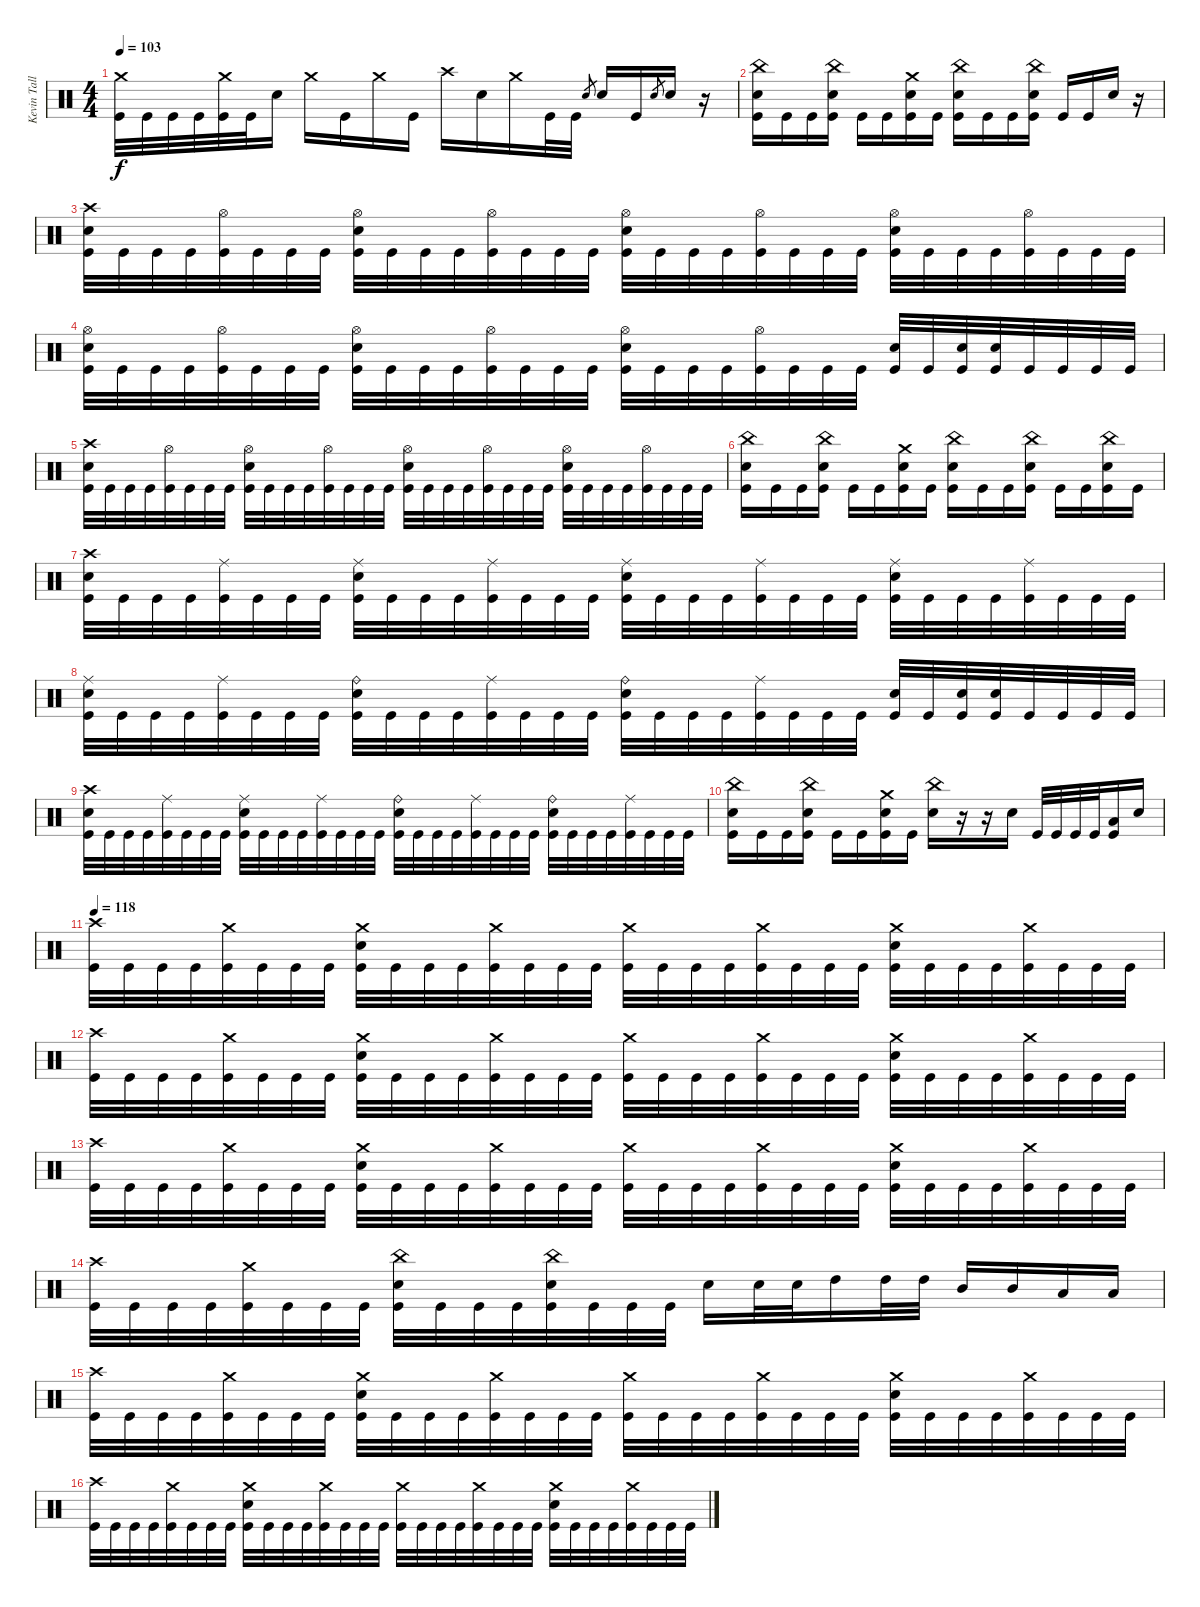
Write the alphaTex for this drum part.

\track ("Kevin Talley" "Kevin Tall") {instrument percussion}
\staff {score}
\articulation defaults
\ts (4 4)
\tempo 103
\clef neutral
\ks c
("Crash medium (hit)" "Kick (hit)").32{dy f} "Kick (hit)".32 "Kick (hit)".32 "Kick (hit)".32 ("Crash medium (hit)" "Kick (hit)").32 "Kick (hit)".32 "Electric Snare (hit)".16 "Crash medium (hit)".16 "Kick (hit)".16 "Crash medium (hit)".16 "Kick (hit)".16 "Crash high (hit)".16 "Electric Snare (hit)".16 "Crash medium (hit)".16 "Kick (hit)".32 "Kick (hit)".32 "Electric Snare (hit)".8{gr} "Electric Snare (hit)".16 "Kick (hit)".16 "Electric Snare (hit)".8{gr} "Electric Snare (hit)".16 r.16 |
("China (hit)" "Electric Snare (hit)" "Kick (hit)").16 "Kick (hit)".16 "Kick (hit)".16 ("China (hit)" "Electric Snare (hit)" "Kick (hit)").16 "Kick (hit)".16 "Kick (hit)".16 ("Crash medium (hit)" "Electric Snare (hit)" "Kick (hit)").16 "Kick (hit)".16 ("China (hit)" "Electric Snare (hit)" "Kick (hit)").16 "Kick (hit)".16 "Kick (hit)".16 ("China (hit)" "Electric Snare (hit)" "Kick (hit)").16 "Kick (hit)".16 "Kick (hit)".16 "Electric Snare (hit)".16 r.16 |
("Crash high (hit)" "Electric Snare (hit)" "Kick (hit)").32 "Kick (hit)".32 "Kick (hit)".32 "Kick (hit)".32 ("Hi-Hat (open)" "Kick (hit)").32 "Kick (hit)".32 "Kick (hit)".32 "Kick (hit)".32 ("Hi-Hat (open)" "Electric Snare (hit)" "Kick (hit)").32 "Kick (hit)".32 "Kick (hit)".32 "Kick (hit)".32 ("Hi-Hat (open)" "Kick (hit)").32 "Kick (hit)".32 "Kick (hit)".32 "Kick (hit)".32 ("Hi-Hat (open)" "Electric Snare (hit)" "Kick (hit)").32 "Kick (hit)".32 "Kick (hit)".32 "Kick (hit)".32 ("Hi-Hat (open)" "Kick (hit)").32 "Kick (hit)".32 "Kick (hit)".32 "Kick (hit)".32 ("Hi-Hat (open)" "Electric Snare (hit)" "Kick (hit)").32 "Kick (hit)".32 "Kick (hit)".32 "Kick (hit)".32 ("Hi-Hat (open)" "Kick (hit)").32 "Kick (hit)".32 "Kick (hit)".32 "Kick (hit)".32 |
("Hi-Hat (open)" "Electric Snare (hit)" "Kick (hit)").32 "Kick (hit)".32 "Kick (hit)".32 "Kick (hit)".32 ("Hi-Hat (open)" "Kick (hit)").32 "Kick (hit)".32 "Kick (hit)".32 "Kick (hit)".32 ("Hi-Hat (open)" "Electric Snare (hit)" "Kick (hit)").32 "Kick (hit)".32 "Kick (hit)".32 "Kick (hit)".32 ("Hi-Hat (open)" "Kick (hit)").32 "Kick (hit)".32 "Kick (hit)".32 "Kick (hit)".32 ("Hi-Hat (open)" "Electric Snare (hit)" "Kick (hit)").32 "Kick (hit)".32 "Kick (hit)".32 "Kick (hit)".32 ("Hi-Hat (open)" "Kick (hit)").32 "Kick (hit)".32 "Kick (hit)".32 "Kick (hit)".32 ("Electric Snare (hit)" "Kick (hit)").32 "Kick (hit)".32 ("Electric Snare (hit)" "Kick (hit)").32 ("Electric Snare (hit)" "Kick (hit)").32 "Kick (hit)".32 "Kick (hit)".32 "Kick (hit)".32 "Kick (hit)".32 |
("Crash high (hit)" "Electric Snare (hit)" "Kick (hit)").32 "Kick (hit)".32 "Kick (hit)".32 "Kick (hit)".32 ("Hi-Hat (open)" "Kick (hit)").32 "Kick (hit)".32 "Kick (hit)".32 "Kick (hit)".32 ("Hi-Hat (open)" "Electric Snare (hit)" "Kick (hit)").32 "Kick (hit)".32 "Kick (hit)".32 "Kick (hit)".32 ("Hi-Hat (open)" "Kick (hit)").32 "Kick (hit)".32 "Kick (hit)".32 "Kick (hit)".32 ("Hi-Hat (open)" "Electric Snare (hit)" "Kick (hit)").32 "Kick (hit)".32 "Kick (hit)".32 "Kick (hit)".32 ("Hi-Hat (open)" "Kick (hit)").32 "Kick (hit)".32 "Kick (hit)".32 "Kick (hit)".32 ("Hi-Hat (open)" "Electric Snare (hit)" "Kick (hit)").32 "Kick (hit)".32 "Kick (hit)".32 "Kick (hit)".32 ("Hi-Hat (open)" "Kick (hit)").32 "Kick (hit)".32 "Kick (hit)".32 "Kick (hit)".32 |
("China (hit)" "Electric Snare (hit)" "Kick (hit)").16 "Kick (hit)".16 "Kick (hit)".16 ("China (hit)" "Electric Snare (hit)" "Kick (hit)").16 "Kick (hit)".16 "Kick (hit)".16 ("Crash medium (hit)" "Electric Snare (hit)" "Kick (hit)").16 "Kick (hit)".16 ("China (hit)" "Electric Snare (hit)" "Kick (hit)").16 "Kick (hit)".16 "Kick (hit)".16 ("China (hit)" "Electric Snare (hit)" "Kick (hit)").16 "Kick (hit)".16 "Kick (hit)".16 ("China (hit)" "Electric Snare (hit)" "Kick (hit)").16 "Kick (hit)".16 |
("Crash high (hit)" "Electric Snare (hit)" "Kick (hit)").32 "Kick (hit)".32 "Kick (hit)".32 "Kick (hit)".32 ("Ride (middle)" "Kick (hit)").32 "Kick (hit)".32 "Kick (hit)".32 "Kick (hit)".32 ("Ride (middle)" "Electric Snare (hit)" "Kick (hit)").32 "Kick (hit)".32 "Kick (hit)".32 "Kick (hit)".32 ("Ride (middle)" "Kick (hit)").32 "Kick (hit)".32 "Kick (hit)".32 "Kick (hit)".32 ("Ride (middle)" "Electric Snare (hit)" "Kick (hit)").32 "Kick (hit)".32 "Kick (hit)".32 "Kick (hit)".32 ("Ride (middle)" "Kick (hit)").32 "Kick (hit)".32 "Kick (hit)".32 "Kick (hit)".32 ("Ride (middle)" "Electric Snare (hit)" "Kick (hit)").32 "Kick (hit)".32 "Kick (hit)".32 "Kick (hit)".32 ("Ride (middle)" "Kick (hit)").32 "Kick (hit)".32 "Kick (hit)".32 "Kick (hit)".32 |
("Ride (middle)" "Electric Snare (hit)" "Kick (hit)").32 "Kick (hit)".32 "Kick (hit)".32 "Kick (hit)".32 ("Ride (middle)" "Kick (hit)").32 "Kick (hit)".32 "Kick (hit)".32 "Kick (hit)".32 ("Ride (bell)" "Electric Snare (hit)" "Kick (hit)").32 "Kick (hit)".32 "Kick (hit)".32 "Kick (hit)".32 ("Ride (middle)" "Kick (hit)").32 "Kick (hit)".32 "Kick (hit)".32 "Kick (hit)".32 ("Ride (bell)" "Electric Snare (hit)" "Kick (hit)").32 "Kick (hit)".32 "Kick (hit)".32 "Kick (hit)".32 ("Ride (middle)" "Kick (hit)").32 "Kick (hit)".32 "Kick (hit)".32 "Kick (hit)".32 ("Electric Snare (hit)" "Kick (hit)").32 "Kick (hit)".32 ("Electric Snare (hit)" "Kick (hit)").32 ("Electric Snare (hit)" "Kick (hit)").32 "Kick (hit)".32 "Kick (hit)".32 "Kick (hit)".32 "Kick (hit)".32 |
("Crash high (hit)" "Electric Snare (hit)" "Kick (hit)").32 "Kick (hit)".32 "Kick (hit)".32 "Kick (hit)".32 ("Ride (middle)" "Kick (hit)").32 "Kick (hit)".32 "Kick (hit)".32 "Kick (hit)".32 ("Ride (middle)" "Electric Snare (hit)" "Kick (hit)").32 "Kick (hit)".32 "Kick (hit)".32 "Kick (hit)".32 ("Ride (middle)" "Kick (hit)").32 "Kick (hit)".32 "Kick (hit)".32 "Kick (hit)".32 ("Ride (bell)" "Electric Snare (hit)" "Kick (hit)").32 "Kick (hit)".32 "Kick (hit)".32 "Kick (hit)".32 ("Ride (middle)" "Kick (hit)").32 "Kick (hit)".32 "Kick (hit)".32 "Kick (hit)".32 ("Ride (bell)" "Electric Snare (hit)" "Kick (hit)").32 "Kick (hit)".32 "Kick (hit)".32 "Kick (hit)".32 ("Ride (middle)" "Kick (hit)").32 "Kick (hit)".32 "Kick (hit)".32 "Kick (hit)".32 |
("China (hit)" "Electric Snare (hit)" "Kick (hit)").16 "Kick (hit)".16 "Kick (hit)".16 ("China (hit)" "Electric Snare (hit)" "Kick (hit)").16 "Kick (hit)".16 "Kick (hit)".16 ("Crash medium (hit)" "Electric Snare (hit)" "Kick (hit)").16 "Kick (hit)".16 ("China (hit)" "Electric Snare (hit)").16 r.16 r.16 "Electric Snare (hit)".16 "Kick (hit)".32 "Kick (hit)".32 "Kick (hit)".32 "Kick (hit)".32 ("Low Tom (hit)" "Kick (hit)").16 "Electric Snare (hit)".16 |
\tempo 118
("Crash high (hit)" "Kick (hit)").32 "Kick (hit)".32 "Kick (hit)".32 "Kick (hit)".32 ("Crash medium (hit)" "Kick (hit)").32 "Kick (hit)".32 "Kick (hit)".32 "Kick (hit)".32 ("Crash medium (hit)" "Electric Snare (hit)" "Kick (hit)").32 "Kick (hit)".32 "Kick (hit)".32 "Kick (hit)".32 ("Crash medium (hit)" "Kick (hit)").32 "Kick (hit)".32 "Kick (hit)".32 "Kick (hit)".32 ("Crash medium (hit)" "Kick (hit)").32 "Kick (hit)".32 "Kick (hit)".32 "Kick (hit)".32 ("Crash medium (hit)" "Kick (hit)").32 "Kick (hit)".32 "Kick (hit)".32 "Kick (hit)".32 ("Crash medium (hit)" "Electric Snare (hit)" "Kick (hit)").32 "Kick (hit)".32 "Kick (hit)".32 "Kick (hit)".32 ("Crash medium (hit)" "Kick (hit)").32 "Kick (hit)".32 "Kick (hit)".32 "Kick (hit)".32 |
("Crash high (hit)" "Kick (hit)").32 "Kick (hit)".32 "Kick (hit)".32 "Kick (hit)".32 ("Crash medium (hit)" "Kick (hit)").32 "Kick (hit)".32 "Kick (hit)".32 "Kick (hit)".32 ("Crash medium (hit)" "Electric Snare (hit)" "Kick (hit)").32 "Kick (hit)".32 "Kick (hit)".32 "Kick (hit)".32 ("Crash medium (hit)" "Kick (hit)").32 "Kick (hit)".32 "Kick (hit)".32 "Kick (hit)".32 ("Crash medium (hit)" "Kick (hit)").32 "Kick (hit)".32 "Kick (hit)".32 "Kick (hit)".32 ("Crash medium (hit)" "Kick (hit)").32 "Kick (hit)".32 "Kick (hit)".32 "Kick (hit)".32 ("Crash medium (hit)" "Electric Snare (hit)" "Kick (hit)").32 "Kick (hit)".32 "Kick (hit)".32 "Kick (hit)".32 ("Crash medium (hit)" "Kick (hit)").32 "Kick (hit)".32 "Kick (hit)".32 "Kick (hit)".32 |
("Crash high (hit)" "Kick (hit)").32 "Kick (hit)".32 "Kick (hit)".32 "Kick (hit)".32 ("Crash medium (hit)" "Kick (hit)").32 "Kick (hit)".32 "Kick (hit)".32 "Kick (hit)".32 ("Crash medium (hit)" "Electric Snare (hit)" "Kick (hit)").32 "Kick (hit)".32 "Kick (hit)".32 "Kick (hit)".32 ("Crash medium (hit)" "Kick (hit)").32 "Kick (hit)".32 "Kick (hit)".32 "Kick (hit)".32 ("Crash medium (hit)" "Kick (hit)").32 "Kick (hit)".32 "Kick (hit)".32 "Kick (hit)".32 ("Crash medium (hit)" "Kick (hit)").32 "Kick (hit)".32 "Kick (hit)".32 "Kick (hit)".32 ("Crash medium (hit)" "Electric Snare (hit)" "Kick (hit)").32 "Kick (hit)".32 "Kick (hit)".32 "Kick (hit)".32 ("Crash medium (hit)" "Kick (hit)").32 "Kick (hit)".32 "Kick (hit)".32 "Kick (hit)".32 |
("Crash high (hit)" "Kick (hit)").32 "Kick (hit)".32 "Kick (hit)".32 "Kick (hit)".32 ("Crash medium (hit)" "Kick (hit)").32 "Kick (hit)".32 "Kick (hit)".32 "Kick (hit)".32 ("China (hit)" "Electric Snare (hit)" "Kick (hit)").32 "Kick (hit)".32 "Kick (hit)".32 "Kick (hit)".32 ("China (hit)" "Electric Snare (hit)" "Kick (hit)").32 "Kick (hit)".32 "Kick (hit)".32 "Kick (hit)".32 "Electric Snare (hit)".16 "Electric Snare (hit)".32 "Electric Snare (hit)".32 "High Tom (hit)".16 "High Tom (hit)".32 "High Tom (hit)".32 "Mid Tom (hit)".16 "Mid Tom (hit)".16 "Low Tom (hit)".16 "Low Tom (hit)".16 |
("Crash high (hit)" "Kick (hit)").32 "Kick (hit)".32 "Kick (hit)".32 "Kick (hit)".32 ("Crash medium (hit)" "Kick (hit)").32 "Kick (hit)".32 "Kick (hit)".32 "Kick (hit)".32 ("Crash medium (hit)" "Electric Snare (hit)" "Kick (hit)").32 "Kick (hit)".32 "Kick (hit)".32 "Kick (hit)".32 ("Crash medium (hit)" "Kick (hit)").32 "Kick (hit)".32 "Kick (hit)".32 "Kick (hit)".32 ("Crash medium (hit)" "Kick (hit)").32 "Kick (hit)".32 "Kick (hit)".32 "Kick (hit)".32 ("Crash medium (hit)" "Kick (hit)").32 "Kick (hit)".32 "Kick (hit)".32 "Kick (hit)".32 ("Crash medium (hit)" "Electric Snare (hit)" "Kick (hit)").32 "Kick (hit)".32 "Kick (hit)".32 "Kick (hit)".32 ("Crash medium (hit)" "Kick (hit)").32 "Kick (hit)".32 "Kick (hit)".32 "Kick (hit)".32 |
("Crash high (hit)" "Kick (hit)").32 "Kick (hit)".32 "Kick (hit)".32 "Kick (hit)".32 ("Crash medium (hit)" "Kick (hit)").32 "Kick (hit)".32 "Kick (hit)".32 "Kick (hit)".32 ("Crash medium (hit)" "Electric Snare (hit)" "Kick (hit)").32 "Kick (hit)".32 "Kick (hit)".32 "Kick (hit)".32 ("Crash medium (hit)" "Kick (hit)").32 "Kick (hit)".32 "Kick (hit)".32 "Kick (hit)".32 ("Crash medium (hit)" "Kick (hit)").32 "Kick (hit)".32 "Kick (hit)".32 "Kick (hit)".32 ("Crash medium (hit)" "Kick (hit)").32 "Kick (hit)".32 "Kick (hit)".32 "Kick (hit)".32 ("Crash medium (hit)" "Electric Snare (hit)" "Kick (hit)").32 "Kick (hit)".32 "Kick (hit)".32 "Kick (hit)".32 ("Crash medium (hit)" "Kick (hit)").32 "Kick (hit)".32 "Kick (hit)".32 "Kick (hit)".32
